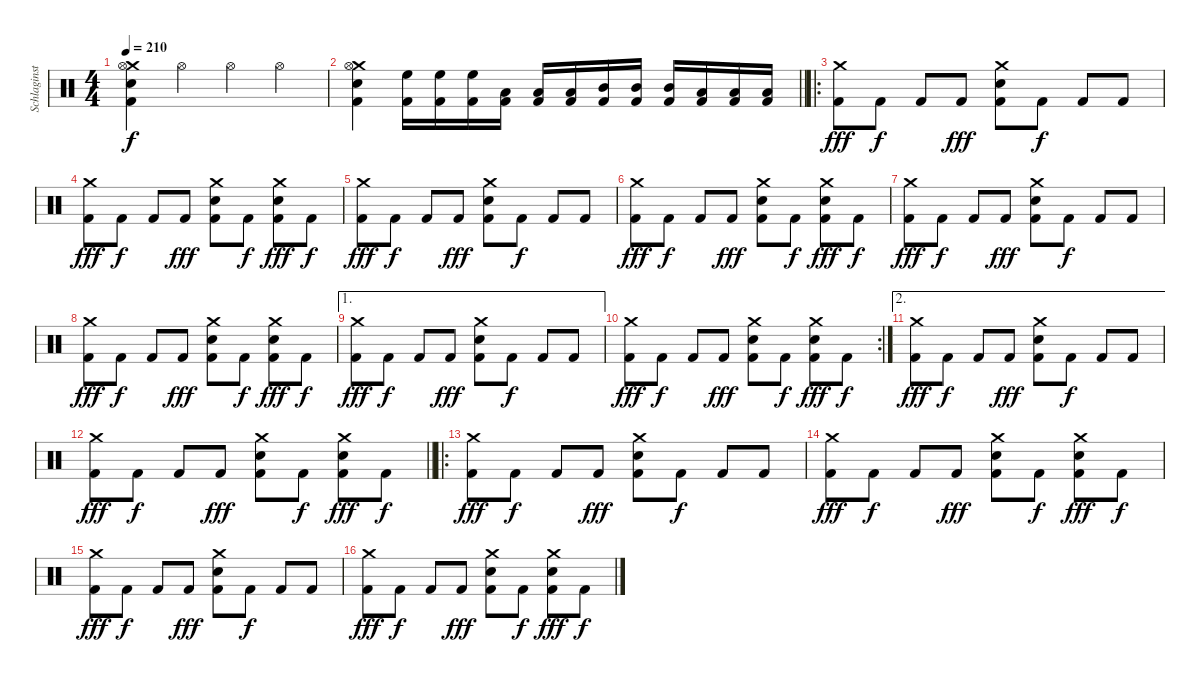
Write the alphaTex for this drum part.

\track ("Schlaginstrumente - Auswahl" "Schlaginst") {instrument percussion}
\staff {score}
\articulation defaults
\ts (4 4)
\tempo 210
\clef neutral
\ks c
("Crash medium (hit)" "Kick (hit) 2" "Hi-Hat (open)" "Snare (hit) 2").4{dy f} "Hi-Hat (open)".4 "Hi-Hat (open)".4 "Hi-Hat (open)".4 |
\barLineRight lightlight
("Crash medium (hit)" "Kick (hit) 2" "Hi-Hat (open)" "Snare (hit) 2").4 ("High Floor Tom (hit)" "Kick (hit) 2").16 ("High Floor Tom (hit)" "Kick (hit) 2").16 ("High Floor Tom (hit)" "Kick (hit) 2").16 ("Low Tom (hit)" "Kick (hit) 2").16 ("Low Tom (hit)" "Kick (hit) 2").16 ("Low Tom (hit)" "Kick (hit) 2").16 ("Mid Tom (hit)" "Kick (hit) 2").16 ("Mid Tom (hit)" "Kick (hit) 2").16 ("Mid Tom (hit)" "Kick (hit) 2").16 ("Low Tom (hit)" "Kick (hit) 2").16 ("Low Tom (hit)" "Kick (hit) 2").16 ("Low Tom (hit)" "Kick (hit) 2").16 |
\ro
("Crash medium (hit)" "Kick (hit) 2").8{dy fff} "Kick (hit) 2".8{dy f} "Kick (hit) 2".8 "Kick (hit) 2".8{dy fff} ("Crash medium (hit)" "Snare (hit) 2" "Kick (hit) 2").8 "Kick (hit) 2".8{dy f} "Kick (hit) 2".8 "Kick (hit) 2".8 |
("Crash medium (hit)" "Kick (hit) 2").8{dy fff} "Kick (hit) 2".8{dy f} "Kick (hit) 2".8 "Kick (hit) 2".8{dy fff} ("Crash medium (hit)" "Snare (hit) 2" "Kick (hit) 2").8 "Kick (hit) 2".8{dy f} ("Crash medium (hit)" "Snare (hit) 2" "Kick (hit) 2").8{dy fff} "Kick (hit) 2".8{dy f} |
("Crash medium (hit)" "Kick (hit) 2").8{dy fff} "Kick (hit) 2".8{dy f} "Kick (hit) 2".8 "Kick (hit) 2".8{dy fff} ("Crash medium (hit)" "Snare (hit) 2" "Kick (hit) 2").8 "Kick (hit) 2".8{dy f} "Kick (hit) 2".8 "Kick (hit) 2".8 |
("Crash medium (hit)" "Kick (hit) 2").8{dy fff} "Kick (hit) 2".8{dy f} "Kick (hit) 2".8 "Kick (hit) 2".8{dy fff} ("Crash medium (hit)" "Snare (hit) 2" "Kick (hit) 2").8 "Kick (hit) 2".8{dy f} ("Crash medium (hit)" "Snare (hit) 2" "Kick (hit) 2").8{dy fff} "Kick (hit) 2".8{dy f} |
("Crash medium (hit)" "Kick (hit) 2").8{dy fff} "Kick (hit) 2".8{dy f} "Kick (hit) 2".8 "Kick (hit) 2".8{dy fff} ("Crash medium (hit)" "Snare (hit) 2" "Kick (hit) 2").8 "Kick (hit) 2".8{dy f} "Kick (hit) 2".8 "Kick (hit) 2".8 |
("Crash medium (hit)" "Kick (hit) 2").8{dy fff} "Kick (hit) 2".8{dy f} "Kick (hit) 2".8 "Kick (hit) 2".8{dy fff} ("Crash medium (hit)" "Snare (hit) 2" "Kick (hit) 2").8 "Kick (hit) 2".8{dy f} ("Crash medium (hit)" "Snare (hit) 2" "Kick (hit) 2").8{dy fff} "Kick (hit) 2".8{dy f} |
\ae 1
("Crash medium (hit)" "Kick (hit) 2").8{dy fff} "Kick (hit) 2".8{dy f} "Kick (hit) 2".8 "Kick (hit) 2".8{dy fff} ("Crash medium (hit)" "Snare (hit) 2" "Kick (hit) 2").8 "Kick (hit) 2".8{dy f} "Kick (hit) 2".8 "Kick (hit) 2".8 |
\rc 2
("Crash medium (hit)" "Kick (hit) 2").8{dy fff} "Kick (hit) 2".8{dy f} "Kick (hit) 2".8 "Kick (hit) 2".8{dy fff} ("Crash medium (hit)" "Snare (hit) 2" "Kick (hit) 2").8 "Kick (hit) 2".8{dy f} ("Crash medium (hit)" "Snare (hit) 2" "Kick (hit) 2").8{dy fff} "Kick (hit) 2".8{dy f} |
\ae 2
("Crash medium (hit)" "Kick (hit) 2").8{dy fff} "Kick (hit) 2".8{dy f} "Kick (hit) 2".8 "Kick (hit) 2".8{dy fff} ("Crash medium (hit)" "Snare (hit) 2" "Kick (hit) 2").8 "Kick (hit) 2".8{dy f} "Kick (hit) 2".8 "Kick (hit) 2".8 |
\barLineRight lightlight
("Crash medium (hit)" "Kick (hit) 2").8{dy fff} "Kick (hit) 2".8{dy f} "Kick (hit) 2".8 "Kick (hit) 2".8{dy fff} ("Crash medium (hit)" "Snare (hit) 2" "Kick (hit) 2").8 "Kick (hit) 2".8{dy f} ("Crash medium (hit)" "Snare (hit) 2" "Kick (hit) 2").8{dy fff} "Kick (hit) 2".8{dy f} |
\ro
("Crash medium (hit)" "Kick (hit) 2").8{dy fff} "Kick (hit) 2".8{dy f} "Kick (hit) 2".8 "Kick (hit) 2".8{dy fff} ("Crash medium (hit)" "Snare (hit) 2" "Kick (hit) 2").8 "Kick (hit) 2".8{dy f} "Kick (hit) 2".8 "Kick (hit) 2".8 |
("Crash medium (hit)" "Kick (hit) 2").8{dy fff} "Kick (hit) 2".8{dy f} "Kick (hit) 2".8 "Kick (hit) 2".8{dy fff} ("Crash medium (hit)" "Snare (hit) 2" "Kick (hit) 2").8 "Kick (hit) 2".8{dy f} ("Crash medium (hit)" "Snare (hit) 2" "Kick (hit) 2").8{dy fff} "Kick (hit) 2".8{dy f} |
("Crash medium (hit)" "Kick (hit) 2").8{dy fff} "Kick (hit) 2".8{dy f} "Kick (hit) 2".8 "Kick (hit) 2".8{dy fff} ("Crash medium (hit)" "Snare (hit) 2" "Kick (hit) 2").8 "Kick (hit) 2".8{dy f} "Kick (hit) 2".8 "Kick (hit) 2".8 |
("Crash medium (hit)" "Kick (hit) 2").8{dy fff} "Kick (hit) 2".8{dy f} "Kick (hit) 2".8 "Kick (hit) 2".8{dy fff} ("Crash medium (hit)" "Snare (hit) 2" "Kick (hit) 2").8 "Kick (hit) 2".8{dy f} ("Crash medium (hit)" "Snare (hit) 2" "Kick (hit) 2").8{dy fff} "Kick (hit) 2".8{dy f}
